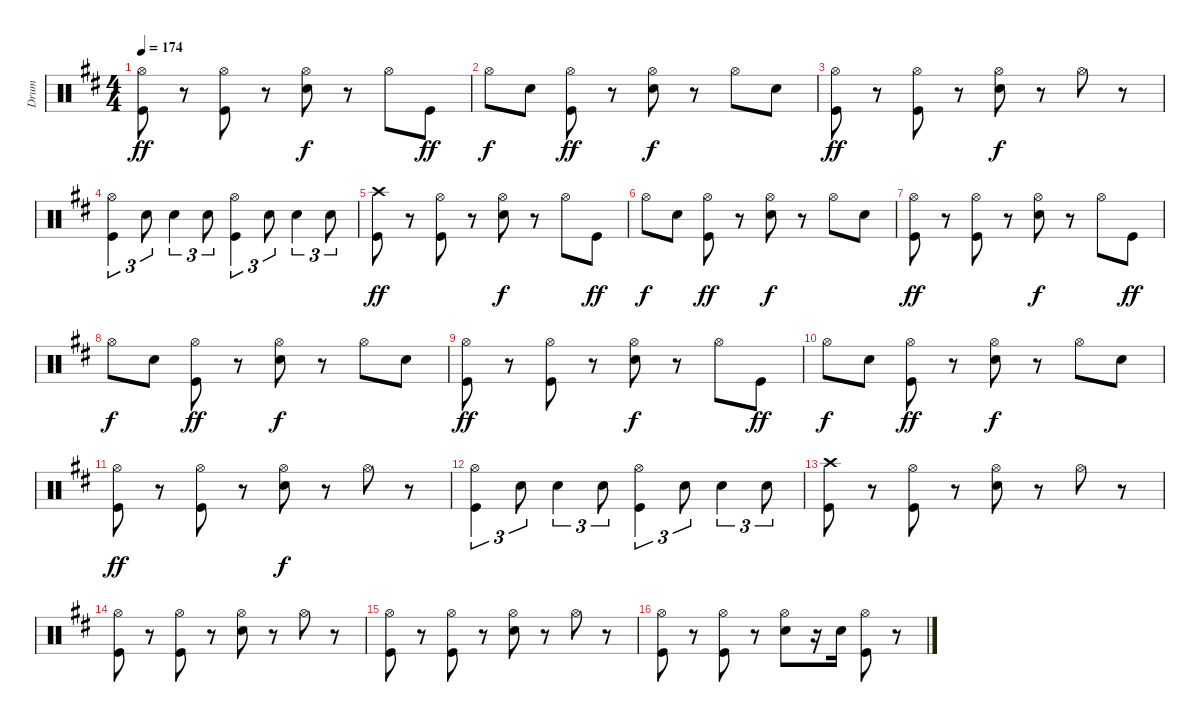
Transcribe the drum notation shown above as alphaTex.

\track ("Drum" "Drum") {instrument percussion}
\staff {score}
\articulation defaults
\ts (4 4)
\tempo 174
\clef neutral
\ks d
("Hi-Hat (open)" "Kick (hit)").8{dy ff} r.8 ("Hi-Hat (open)" "Kick (hit)").8 r.8 ("Hi-Hat (open)" "Snare (hit) 2").8{dy f} r.8 "Hi-Hat (open)".8 "Kick (hit)".8{dy ff} |
"Hi-Hat (open)".8{dy f} "Snare (hit) 2".8 ("Hi-Hat (open)" "Kick (hit)").8{dy ff} r.8 ("Hi-Hat (open)" "Snare (hit) 2").8{dy f} r.8 "Hi-Hat (open)".8 "Snare (hit) 2".8 |
("Hi-Hat (open)" "Kick (hit)").8{dy ff} r.8 ("Hi-Hat (open)" "Kick (hit)").8 r.8 ("Hi-Hat (open)" "Snare (hit) 2").8{dy f} r.8 "Hi-Hat (open)".8 r.8 |
("Hi-Hat (open)" "Kick (hit)").4{tu (3 2)} "Snare (hit) 2".8{tu (3 2)} "Snare (hit) 2".4{tu (3 2)} "Snare (hit) 2".8{tu (3 2)} ("Hi-Hat (open)" "Kick (hit)").4{tu (3 2)} "Snare (hit) 2".8{tu (3 2)} "Snare (hit) 2".4{tu (3 2)} "Snare (hit) 2".8{tu (3 2)} |
("Crash high (hit)" "Kick (hit)").8{dy ff} r.8 ("Hi-Hat (open)" "Kick (hit)").8 r.8 ("Hi-Hat (open)" "Snare (hit) 2").8{dy f} r.8 "Hi-Hat (open)".8 "Kick (hit)".8{dy ff} |
"Hi-Hat (open)".8{dy f} "Snare (hit) 2".8 ("Hi-Hat (open)" "Kick (hit)").8{dy ff} r.8 ("Hi-Hat (open)" "Snare (hit) 2").8{dy f} r.8 "Hi-Hat (open)".8 "Snare (hit) 2".8 |
("Hi-Hat (open)" "Kick (hit)").8{dy ff} r.8 ("Hi-Hat (open)" "Kick (hit)").8 r.8 ("Hi-Hat (open)" "Snare (hit) 2").8{dy f} r.8 "Hi-Hat (open)".8 "Kick (hit)".8{dy ff} |
"Hi-Hat (open)".8{dy f} "Snare (hit) 2".8 ("Hi-Hat (open)" "Kick (hit)").8{dy ff} r.8 ("Hi-Hat (open)" "Snare (hit) 2").8{dy f} r.8 "Hi-Hat (open)".8 "Snare (hit) 2".8 |
("Hi-Hat (open)" "Kick (hit)").8{dy ff} r.8 ("Hi-Hat (open)" "Kick (hit)").8 r.8 ("Hi-Hat (open)" "Snare (hit) 2").8{dy f} r.8 "Hi-Hat (open)".8 "Kick (hit)".8{dy ff} |
"Hi-Hat (open)".8{dy f} "Snare (hit) 2".8 ("Hi-Hat (open)" "Kick (hit)").8{dy ff} r.8 ("Hi-Hat (open)" "Snare (hit) 2").8{dy f} r.8 "Hi-Hat (open)".8 "Snare (hit) 2".8 |
("Hi-Hat (open)" "Kick (hit)").8{dy ff} r.8 ("Hi-Hat (open)" "Kick (hit)").8 r.8 ("Hi-Hat (open)" "Snare (hit) 2").8{dy f} r.8 "Hi-Hat (open)".8 r.8 |
("Hi-Hat (open)" "Kick (hit)").4{tu (3 2)} "Snare (hit) 2".8{tu (3 2)} "Snare (hit) 2".4{tu (3 2)} "Snare (hit) 2".8{tu (3 2)} ("Hi-Hat (open)" "Kick (hit)").4{tu (3 2)} "Snare (hit) 2".8{tu (3 2)} "Snare (hit) 2".4{tu (3 2)} "Snare (hit) 2".8{tu (3 2)} |
("Crash high (hit)" "Kick (hit)").8 r.8 ("Hi-Hat (open)" "Kick (hit)").8 r.8 ("Hi-Hat (open)" "Electric Snare (hit)").8 r.8 "Hi-Hat (open)".8 r.8 |
("Hi-Hat (open)" "Kick (hit)").8 r.8 ("Hi-Hat (open)" "Kick (hit)").8 r.8 ("Hi-Hat (open)" "Electric Snare (hit)").8 r.8 "Hi-Hat (open)".8 r.8 |
("Hi-Hat (open)" "Kick (hit)").8 r.8 ("Hi-Hat (open)" "Kick (hit)").8 r.8 ("Hi-Hat (open)" "Electric Snare (hit)").8 r.8 "Hi-Hat (open)".8 r.8 |
("Hi-Hat (open)" "Kick (hit)").8 r.8 ("Hi-Hat (open)" "Kick (hit)").8 r.8 ("Hi-Hat (open)" "Electric Snare (hit)").8 r.16 "Electric Snare (hit)".16 ("Hi-Hat (open)" "Kick (hit)").8 r.8
